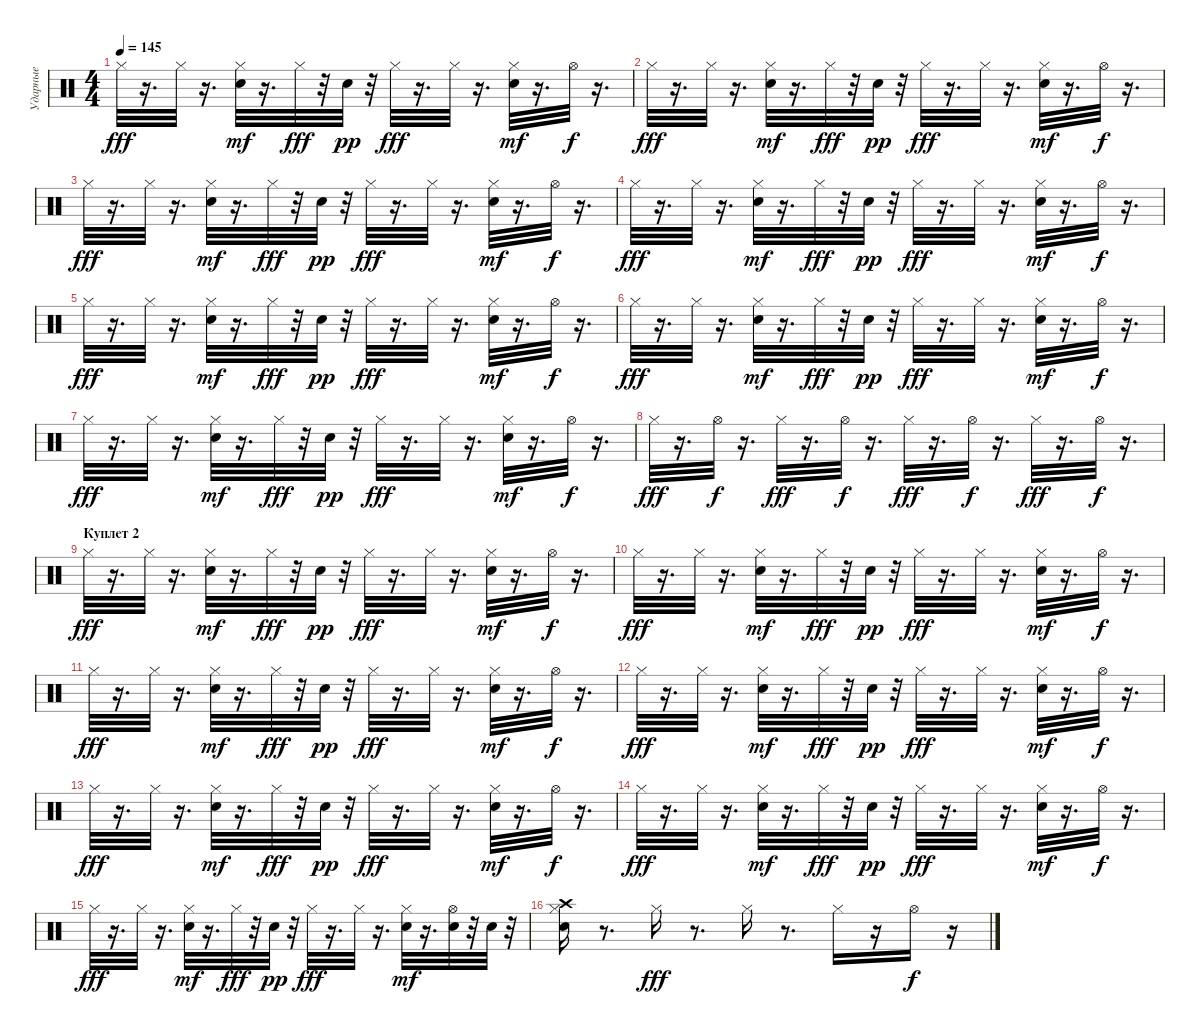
\track ("Ударные" "Ударные") {instrument percussion}
\staff {score}
\articulation defaults
\ts (4 4)
\tempo 145
\clef neutral
\ks c "Hi-Hat (closed)".32{dy fff}
r.16{d} "Hi-Hat (closed)".32 r.16{d} ("Hi-Hat (closed)" "Electric Snare (hit)").32{dy mf} r.16{d} "Hi-Hat (closed)".32{dy fff} r.32 "Electric Snare (hit)".32{dy pp} r.32 "Hi-Hat (closed)".32{dy fff} r.16{d} "Hi-Hat (closed)".32 r.16{d} ("Hi-Hat (closed)" "Electric Snare (hit)").32{dy mf} r.16{d} "Hi-Hat (open)".32{dy f} r.16{d} |
"Hi-Hat (closed)".32{dy fff} r.16{d} "Hi-Hat (closed)".32 r.16{d} ("Hi-Hat (closed)" "Electric Snare (hit)").32{dy mf} r.16{d} "Hi-Hat (closed)".32{dy fff} r.32 "Electric Snare (hit)".32{dy pp} r.32 "Hi-Hat (closed)".32{dy fff} r.16{d} "Hi-Hat (closed)".32 r.16{d} ("Hi-Hat (closed)" "Electric Snare (hit)").32{dy mf} r.16{d} "Hi-Hat (open)".32{dy f} r.16{d} |
"Hi-Hat (closed)".32{dy fff} r.16{d} "Hi-Hat (closed)".32 r.16{d} ("Hi-Hat (closed)" "Electric Snare (hit)").32{dy mf} r.16{d} "Hi-Hat (closed)".32{dy fff} r.32 "Electric Snare (hit)".32{dy pp} r.32 "Hi-Hat (closed)".32{dy fff} r.16{d} "Hi-Hat (closed)".32 r.16{d} ("Hi-Hat (closed)" "Electric Snare (hit)").32{dy mf} r.16{d} "Hi-Hat (open)".32{dy f} r.16{d} |
"Hi-Hat (closed)".32{dy fff} r.16{d} "Hi-Hat (closed)".32 r.16{d} ("Hi-Hat (closed)" "Electric Snare (hit)").32{dy mf} r.16{d} "Hi-Hat (closed)".32{dy fff} r.32 "Electric Snare (hit)".32{dy pp} r.32 "Hi-Hat (closed)".32{dy fff} r.16{d} "Hi-Hat (closed)".32 r.16{d} ("Hi-Hat (closed)" "Electric Snare (hit)").32{dy mf} r.16{d} "Hi-Hat (open)".32{dy f} r.16{d} |
"Hi-Hat (closed)".32{dy fff} r.16{d} "Hi-Hat (closed)".32 r.16{d} ("Hi-Hat (closed)" "Electric Snare (hit)").32{dy mf} r.16{d} "Hi-Hat (closed)".32{dy fff} r.32 "Electric Snare (hit)".32{dy pp} r.32 "Hi-Hat (closed)".32{dy fff} r.16{d} "Hi-Hat (closed)".32 r.16{d} ("Hi-Hat (closed)" "Electric Snare (hit)").32{dy mf} r.16{d} "Hi-Hat (open)".32{dy f} r.16{d} |
"Hi-Hat (closed)".32{dy fff} r.16{d} "Hi-Hat (closed)".32 r.16{d} ("Hi-Hat (closed)" "Electric Snare (hit)").32{dy mf} r.16{d} "Hi-Hat (closed)".32{dy fff} r.32 "Electric Snare (hit)".32{dy pp} r.32 "Hi-Hat (closed)".32{dy fff} r.16{d} "Hi-Hat (closed)".32 r.16{d} ("Hi-Hat (closed)" "Electric Snare (hit)").32{dy mf} r.16{d} "Hi-Hat (open)".32{dy f} r.16{d} |
"Hi-Hat (closed)".32{dy fff} r.16{d} "Hi-Hat (closed)".32 r.16{d} ("Hi-Hat (closed)" "Electric Snare (hit)").32{dy mf} r.16{d} "Hi-Hat (closed)".32{dy fff} r.32 "Electric Snare (hit)".32{dy pp} r.32 "Hi-Hat (closed)".32{dy fff} r.16{d} "Hi-Hat (closed)".32 r.16{d} ("Hi-Hat (closed)" "Electric Snare (hit)").32{dy mf} r.16{d} "Hi-Hat (open)".32{dy f} r.16{d} |
"Hi-Hat (closed)".32{dy fff} r.16{d} "Hi-Hat (open)".32{dy f} r.16{d} "Hi-Hat (closed)".32{dy fff} r.16{d} "Hi-Hat (open)".32{dy f} r.16{d} "Hi-Hat (closed)".32{dy fff} r.16{d} "Hi-Hat (open)".32{dy f} r.16{d} "Hi-Hat (closed)".32{dy fff} r.16{d} "Hi-Hat (open)".32{dy f} r.16{d} |
\section ("" "Куплет 2")
"Hi-Hat (closed)".32{dy fff} r.16{d} "Hi-Hat (closed)".32 r.16{d} ("Hi-Hat (closed)" "Electric Snare (hit)").32{dy mf} r.16{d} "Hi-Hat (closed)".32{dy fff} r.32 "Electric Snare (hit)".32{dy pp} r.32 "Hi-Hat (closed)".32{dy fff} r.16{d} "Hi-Hat (closed)".32 r.16{d} ("Hi-Hat (closed)" "Electric Snare (hit)").32{dy mf} r.16{d} "Hi-Hat (open)".32{dy f} r.16{d} |
"Hi-Hat (closed)".32{dy fff} r.16{d} "Hi-Hat (closed)".32 r.16{d} ("Hi-Hat (closed)" "Electric Snare (hit)").32{dy mf} r.16{d} "Hi-Hat (closed)".32{dy fff} r.32 "Electric Snare (hit)".32{dy pp} r.32 "Hi-Hat (closed)".32{dy fff} r.16{d} "Hi-Hat (closed)".32 r.16{d} ("Hi-Hat (closed)" "Electric Snare (hit)").32{dy mf} r.16{d} "Hi-Hat (open)".32{dy f} r.16{d} |
"Hi-Hat (closed)".32{dy fff} r.16{d} "Hi-Hat (closed)".32 r.16{d} ("Hi-Hat (closed)" "Electric Snare (hit)").32{dy mf} r.16{d} "Hi-Hat (closed)".32{dy fff} r.32 "Electric Snare (hit)".32{dy pp} r.32 "Hi-Hat (closed)".32{dy fff} r.16{d} "Hi-Hat (closed)".32 r.16{d} ("Hi-Hat (closed)" "Electric Snare (hit)").32{dy mf} r.16{d} "Hi-Hat (open)".32{dy f} r.16{d} |
"Hi-Hat (closed)".32{dy fff} r.16{d} "Hi-Hat (closed)".32 r.16{d} ("Hi-Hat (closed)" "Electric Snare (hit)").32{dy mf} r.16{d} "Hi-Hat (closed)".32{dy fff} r.32 "Electric Snare (hit)".32{dy pp} r.32 "Hi-Hat (closed)".32{dy fff} r.16{d} "Hi-Hat (closed)".32 r.16{d} ("Hi-Hat (closed)" "Electric Snare (hit)").32{dy mf} r.16{d} "Hi-Hat (open)".32{dy f} r.16{d} |
"Hi-Hat (closed)".32{dy fff} r.16{d} "Hi-Hat (closed)".32 r.16{d} ("Hi-Hat (closed)" "Electric Snare (hit)").32{dy mf} r.16{d} "Hi-Hat (closed)".32{dy fff} r.32 "Electric Snare (hit)".32{dy pp} r.32 "Hi-Hat (closed)".32{dy fff} r.16{d} "Hi-Hat (closed)".32 r.16{d} ("Hi-Hat (closed)" "Electric Snare (hit)").32{dy mf} r.16{d} "Hi-Hat (open)".32{dy f} r.16{d} |
"Hi-Hat (closed)".32{dy fff} r.16{d} "Hi-Hat (closed)".32 r.16{d} ("Hi-Hat (closed)" "Electric Snare (hit)").32{dy mf} r.16{d} "Hi-Hat (closed)".32{dy fff} r.32 "Electric Snare (hit)".32{dy pp} r.32 "Hi-Hat (closed)".32{dy fff} r.16{d} "Hi-Hat (closed)".32 r.16{d} ("Hi-Hat (closed)" "Electric Snare (hit)").32{dy mf} r.16{d} "Hi-Hat (open)".32{dy f} r.16{d} |
"Hi-Hat (closed)".32{dy fff} r.16{d} "Hi-Hat (closed)".32 r.16{d} ("Hi-Hat (closed)" "Electric Snare (hit)").32{dy mf} r.16{d} "Hi-Hat (closed)".32{dy fff} r.32 "Electric Snare (hit)".32{dy pp} r.32 "Hi-Hat (closed)".32{dy fff} r.16{d} "Hi-Hat (closed)".32 r.16{d} ("Hi-Hat (closed)" "Electric Snare (hit)").32{dy mf} r.16{d} ("Electric Snare (hit)" "Hi-Hat (open)").32 r.32 "Electric Snare (hit)".32 r.32 |
("Crash high (hit)" "Hi-Hat (closed)" "Electric Snare (hit)").16 r.8{d} "Hi-Hat (closed)".16{dy fff} r.8{d} "Hi-Hat (closed)".16 r.8{d} "Hi-Hat (closed)".16 r.16 "Hi-Hat (open)".16{dy f} r.16
